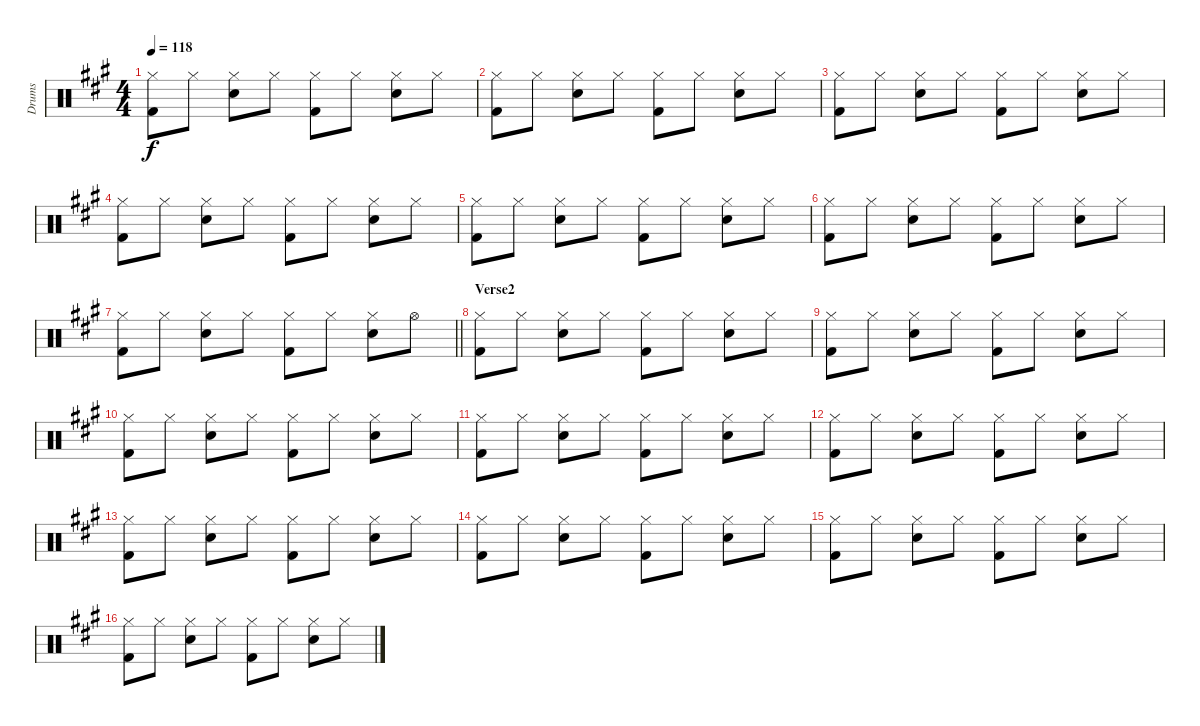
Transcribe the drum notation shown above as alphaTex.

\track ("Drums" "Drums") {instrument percussion}
\staff {score}
\articulation defaults
\ts (4 4)
\tempo 118
\clef neutral
\ks f#minor
("Hi-Hat (closed)" "Kick (hit) 2").8{dy f} "Hi-Hat (closed)".8 ("Hi-Hat (closed)" "Snare (hit) 2").8 "Hi-Hat (closed)".8 ("Hi-Hat (closed)" "Kick (hit) 2").8 "Hi-Hat (closed)".8 ("Hi-Hat (closed)" "Snare (hit) 2").8 "Hi-Hat (closed)".8 |
("Hi-Hat (closed)" "Kick (hit) 2").8 "Hi-Hat (closed)".8 ("Hi-Hat (closed)" "Snare (hit) 2").8 "Hi-Hat (closed)".8 ("Hi-Hat (closed)" "Kick (hit) 2").8 "Hi-Hat (closed)".8 ("Hi-Hat (closed)" "Snare (hit) 2").8 "Hi-Hat (closed)".8 |
("Hi-Hat (closed)" "Kick (hit) 2").8 "Hi-Hat (closed)".8 ("Hi-Hat (closed)" "Snare (hit) 2").8 "Hi-Hat (closed)".8 ("Hi-Hat (closed)" "Kick (hit) 2").8 "Hi-Hat (closed)".8 ("Hi-Hat (closed)" "Snare (hit) 2").8 "Hi-Hat (closed)".8 |
("Hi-Hat (closed)" "Kick (hit) 2").8 "Hi-Hat (closed)".8 ("Hi-Hat (closed)" "Snare (hit) 2").8 "Hi-Hat (closed)".8 ("Hi-Hat (closed)" "Kick (hit) 2").8 "Hi-Hat (closed)".8 ("Hi-Hat (closed)" "Snare (hit) 2").8 "Hi-Hat (closed)".8 |
("Hi-Hat (closed)" "Kick (hit) 2").8 "Hi-Hat (closed)".8 ("Hi-Hat (closed)" "Snare (hit) 2").8 "Hi-Hat (closed)".8 ("Hi-Hat (closed)" "Kick (hit) 2").8 "Hi-Hat (closed)".8 ("Hi-Hat (closed)" "Snare (hit) 2").8 "Hi-Hat (closed)".8 |
("Hi-Hat (closed)" "Kick (hit) 2").8 "Hi-Hat (closed)".8 ("Hi-Hat (closed)" "Snare (hit) 2").8 "Hi-Hat (closed)".8 ("Hi-Hat (closed)" "Kick (hit) 2").8 "Hi-Hat (closed)".8 ("Hi-Hat (closed)" "Snare (hit) 2").8 "Hi-Hat (closed)".8 |
\barLineRight lightlight
("Hi-Hat (closed)" "Kick (hit) 2").8 "Hi-Hat (closed)".8 ("Hi-Hat (closed)" "Snare (hit) 2").8 "Hi-Hat (closed)".8 ("Hi-Hat (closed)" "Kick (hit) 2").8 "Hi-Hat (closed)".8 ("Hi-Hat (closed)" "Snare (hit) 2").8 "Hi-Hat (open)".8 |
\section ("" "Verse2")
("Hi-Hat (closed)" "Kick (hit) 2").8 "Hi-Hat (closed)".8 ("Hi-Hat (closed)" "Snare (hit) 2").8 "Hi-Hat (closed)".8 ("Hi-Hat (closed)" "Kick (hit) 2").8 "Hi-Hat (closed)".8 ("Hi-Hat (closed)" "Snare (hit) 2").8 "Hi-Hat (closed)".8 |
("Hi-Hat (closed)" "Kick (hit) 2").8 "Hi-Hat (closed)".8 ("Hi-Hat (closed)" "Snare (hit) 2").8 "Hi-Hat (closed)".8 ("Hi-Hat (closed)" "Kick (hit) 2").8 "Hi-Hat (closed)".8 ("Hi-Hat (closed)" "Snare (hit) 2").8 "Hi-Hat (closed)".8 |
("Hi-Hat (closed)" "Kick (hit) 2").8 "Hi-Hat (closed)".8 ("Hi-Hat (closed)" "Snare (hit) 2").8 "Hi-Hat (closed)".8 ("Hi-Hat (closed)" "Kick (hit) 2").8 "Hi-Hat (closed)".8 ("Hi-Hat (closed)" "Snare (hit) 2").8 "Hi-Hat (closed)".8 |
("Hi-Hat (closed)" "Kick (hit) 2").8 "Hi-Hat (closed)".8 ("Hi-Hat (closed)" "Snare (hit) 2").8 "Hi-Hat (closed)".8 ("Hi-Hat (closed)" "Kick (hit) 2").8 "Hi-Hat (closed)".8 ("Hi-Hat (closed)" "Snare (hit) 2").8 "Hi-Hat (closed)".8 |
("Hi-Hat (closed)" "Kick (hit) 2").8 "Hi-Hat (closed)".8 ("Hi-Hat (closed)" "Snare (hit) 2").8 "Hi-Hat (closed)".8 ("Hi-Hat (closed)" "Kick (hit) 2").8 "Hi-Hat (closed)".8 ("Hi-Hat (closed)" "Snare (hit) 2").8 "Hi-Hat (closed)".8 |
("Hi-Hat (closed)" "Kick (hit) 2").8 "Hi-Hat (closed)".8 ("Hi-Hat (closed)" "Snare (hit) 2").8 "Hi-Hat (closed)".8 ("Hi-Hat (closed)" "Kick (hit) 2").8 "Hi-Hat (closed)".8 ("Hi-Hat (closed)" "Snare (hit) 2").8 "Hi-Hat (closed)".8 |
("Hi-Hat (closed)" "Kick (hit) 2").8 "Hi-Hat (closed)".8 ("Hi-Hat (closed)" "Snare (hit) 2").8 "Hi-Hat (closed)".8 ("Hi-Hat (closed)" "Kick (hit) 2").8 "Hi-Hat (closed)".8 ("Hi-Hat (closed)" "Snare (hit) 2").8 "Hi-Hat (closed)".8 |
("Hi-Hat (closed)" "Kick (hit) 2").8 "Hi-Hat (closed)".8 ("Hi-Hat (closed)" "Snare (hit) 2").8 "Hi-Hat (closed)".8 ("Hi-Hat (closed)" "Kick (hit) 2").8 "Hi-Hat (closed)".8 ("Hi-Hat (closed)" "Snare (hit) 2").8 "Hi-Hat (closed)".8 |
("Hi-Hat (closed)" "Kick (hit) 2").8 "Hi-Hat (closed)".8 ("Hi-Hat (closed)" "Snare (hit) 2").8 "Hi-Hat (closed)".8 ("Hi-Hat (closed)" "Kick (hit) 2").8 "Hi-Hat (closed)".8 ("Hi-Hat (closed)" "Snare (hit) 2").8 "Hi-Hat (closed)".8
